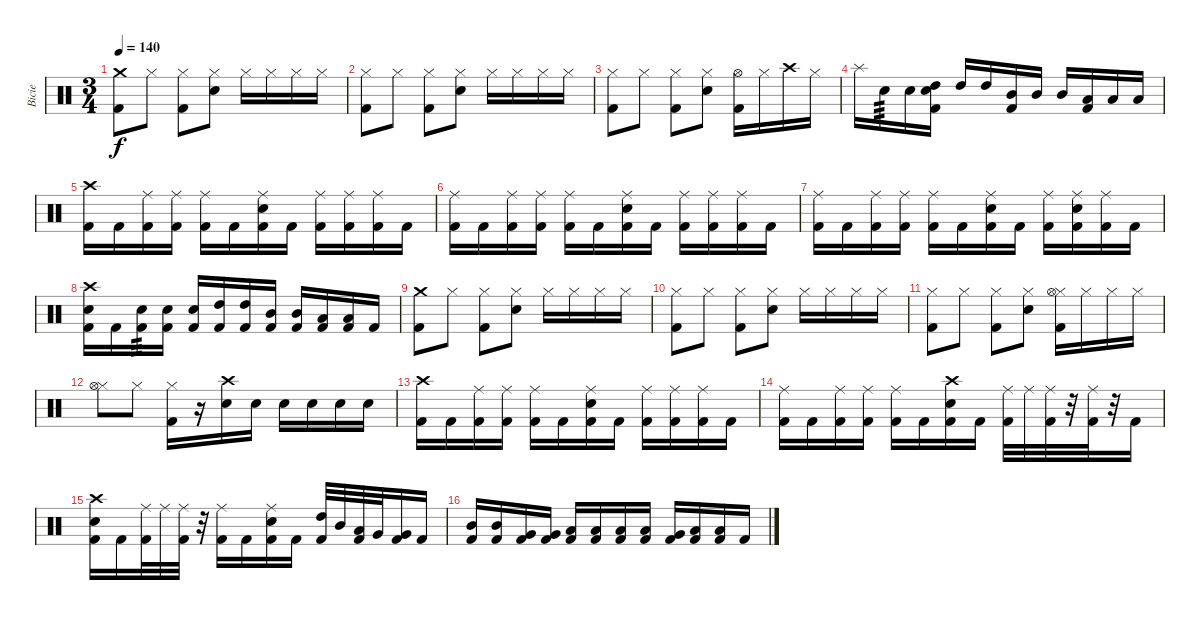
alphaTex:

\track ("Bicie" "Bicie") {instrument percussion}
\staff {score}
\articulation defaults
\ts (3 4)
\tempo 140
\clef neutral
\ks c
("Crash medium (hit)" "Kick (hit) 2").8{dy f volume 15} "Hi-Hat (closed)".8 ("Hi-Hat (closed)" "Kick (hit) 2").8 ("Hi-Hat (closed)" "Snare (hit) 2").8 "Hi-Hat (closed)".16 "Hi-Hat (closed)".16 "Hi-Hat (closed)".16 "Hi-Hat (closed)".16 |
("Hi-Hat (closed)" "Kick (hit) 2").8 "Hi-Hat (closed)".8 ("Hi-Hat (closed)" "Kick (hit) 2").8 ("Hi-Hat (closed)" "Snare (hit) 2").8 "Hi-Hat (closed)".16 "Hi-Hat (closed)".16 "Hi-Hat (closed)".16 "Hi-Hat (closed)".16 |
("Hi-Hat (closed)" "Kick (hit) 2").8 "Hi-Hat (closed)".8 ("Hi-Hat (closed)" "Kick (hit) 2").8 ("Hi-Hat (closed)" "Snare (hit) 2").8 ("Hi-Hat (open)" "Kick (hit) 2").16 "Hi-Hat (closed)".16 "Crash high (hit)".16 "Hi-Hat (closed)".16 |
"Splash (hit)".16 "Snare (hit) 2".16{tp 3} "Snare (hit) 2".16 ("Snare (hit) 2" "High Tom (hit)" "Kick (hit) 2").16 "High Tom (hit)".16 "High Tom (hit)".16 ("Mid Tom (hit)" "Kick (hit) 2").16 "Mid Tom (hit)".16 "Mid Tom (hit)".16 ("Low Tom (hit)" "Kick (hit) 2").16 "Low Tom (hit)".16 "Low Tom (hit)".16 |
("Crash high (hit)" "Kick (hit) 2").16 "Kick (hit) 2".16 ("Ride (middle)" "Kick (hit) 2").16 ("Ride (middle)" "Kick (hit) 2").16 ("Ride (middle)" "Kick (hit) 2").16 "Kick (hit) 2".16 ("Ride (middle)" "Snare (hit) 2" "Kick (hit) 2").16 "Kick (hit) 2".16 ("Ride (middle)" "Kick (hit) 2").16 ("Ride (middle)" "Kick (hit) 2").16 ("Ride (middle)" "Kick (hit) 2").16 "Kick (hit) 2".16 |
("Ride (middle)" "Kick (hit) 2").16 "Kick (hit) 2".16 ("Ride (middle)" "Kick (hit) 2").16 ("Ride (middle)" "Kick (hit) 2").16 ("Ride (middle)" "Kick (hit) 2").16 "Kick (hit) 2".16 ("Ride (middle)" "Snare (hit) 2" "Kick (hit) 2").16 "Kick (hit) 2".16 ("Ride (middle)" "Kick (hit) 2").16 ("Ride (middle)" "Kick (hit) 2").16 ("Ride (middle)" "Kick (hit) 2").16 "Kick (hit) 2".16 |
("Ride (middle)" "Kick (hit) 2").16 "Kick (hit) 2".16 ("Ride (middle)" "Kick (hit) 2").16 ("Ride (middle)" "Kick (hit) 2").16 ("Ride (middle)" "Kick (hit) 2").16 "Kick (hit) 2".16 ("Ride (middle)" "Snare (hit) 2" "Kick (hit) 2").16 "Kick (hit) 2".16 ("Ride (middle)" "Kick (hit) 2").16 ("Ride (middle)" "Snare (hit) 2" "Kick (hit) 2").16 ("Ride (middle)" "Kick (hit) 2").16 "Kick (hit) 2".16 |
("Crash high (hit)" "Snare (hit) 2" "Kick (hit) 2").16 "Kick (hit) 2".16 ("Snare (hit) 2" "Kick (hit) 2").16{tp 3} ("Snare (hit) 2" "Kick (hit) 2").16 ("Snare (hit) 2" "Kick (hit) 2").16 ("High Tom (hit)" "Kick (hit) 2").16 ("High Tom (hit)" "Kick (hit) 2").16 ("Mid Tom (hit)" "Kick (hit) 2").16 ("Mid Tom (hit)" "Kick (hit) 2").16 ("Low Tom (hit)" "Kick (hit) 2").16 ("Low Tom (hit)" "Kick (hit) 2").16 "Kick (hit) 2".16 |
("Crash medium (hit)" "Kick (hit) 2").8{volume 15} "Hi-Hat (closed)".8 ("Hi-Hat (closed)" "Kick (hit) 2").8 ("Hi-Hat (closed)" "Snare (hit) 2").8 "Hi-Hat (closed)".16 "Hi-Hat (closed)".16 "Hi-Hat (closed)".16 "Hi-Hat (closed)".16 |
("Hi-Hat (closed)" "Kick (hit) 2").8 "Hi-Hat (closed)".8 ("Hi-Hat (closed)" "Kick (hit) 2").8 ("Hi-Hat (closed)" "Snare (hit) 2").8 "Hi-Hat (closed)".16 "Hi-Hat (closed)".16 "Hi-Hat (closed)".16 "Hi-Hat (closed)".16 |
("Hi-Hat (closed)" "Kick (hit) 2").8 "Hi-Hat (closed)".8 ("Hi-Hat (closed)" "Kick (hit) 2").8 ("Hi-Hat (closed)" "Snare (hit) 2").8 ("Hi-Hat (closed)" "Hi-Hat (open)" "Kick (hit) 2").16 "Hi-Hat (closed)".16 "Hi-Hat (closed)".16 "Hi-Hat (closed)".16 |
("Hi-Hat (closed)" "Hi-Hat (open)").8 "Hi-Hat (closed)".8 ("Hi-Hat (closed)" "Kick (hit) 2").16 r.16 ("Crash high (hit)" "Snare (hit) 2").16 "Snare (hit) 2".16 "Snare (hit) 2".16 "Snare (hit) 2".16 "Snare (hit) 2".16 "Snare (hit) 2".16 |
("Crash high (hit)" "Kick (hit) 2").16 "Kick (hit) 2".16 ("Ride (middle)" "Kick (hit) 2").16 ("Ride (middle)" "Kick (hit) 2").16 ("Ride (middle)" "Kick (hit) 2").16 "Kick (hit) 2".16 ("Ride (middle)" "Snare (hit) 2" "Kick (hit) 2").16 "Kick (hit) 2".16 ("Ride (middle)" "Kick (hit) 2").16 ("Ride (middle)" "Kick (hit) 2").16 ("Ride (middle)" "Kick (hit) 2").16 "Kick (hit) 2".16 |
("Ride (middle)" "Kick (hit) 2").16 "Kick (hit) 2".16 ("Ride (middle)" "Kick (hit) 2").16 ("Ride (middle)" "Kick (hit) 2").16 ("Ride (middle)" "Kick (hit) 2").16 "Kick (hit) 2".16 ("Crash high (hit)" "Snare (hit) 2" "Kick (hit) 2").16 "Kick (hit) 2".16 ("Ride (middle)" "Kick (hit) 2").32 "Ride (middle)".32 ("Ride (middle)" "Kick (hit) 2").32 r.32 ("Ride (middle)" "Kick (hit) 2").32 r.32 "Kick (hit) 2".16 |
("Crash high (hit)" "Snare (hit) 2" "Kick (hit) 2").16 "Kick (hit) 2".16 ("Ride (middle)" "Kick (hit) 2").32 "Ride (middle)".32 ("Ride (middle)" "Kick (hit) 2").32 r.32 ("Ride (middle)" "Kick (hit) 2").16 "Kick (hit) 2".16 ("Ride (middle)" "Snare (hit) 2" "Kick (hit) 2").16 "Kick (hit) 2".16 ("High Tom (hit)" "Kick (hit) 2").32 "Mid Tom (hit)".32 ("Low Tom (hit)" "Kick (hit) 2").32 "Very Low Tom (hit)".32 ("Very Low Tom (hit)" "Kick (hit) 2").16 "Kick (hit) 2".16 |
("Mid Tom (hit)" "Kick (hit) 2").16 ("Mid Tom (hit)" "Kick (hit) 2").16 ("Very Low Tom (hit)" "Kick (hit) 2").16 ("Very Low Tom (hit)" "Kick (hit) 2").16 ("Low Floor Tom (hit)" "Kick (hit) 2").16 ("Low Floor Tom (hit)" "Kick (hit) 2").16 ("Low Tom (hit)" "Kick (hit) 2").16 ("Low Tom (hit)" "Kick (hit) 2").16 ("Very Low Tom (hit)" "Kick (hit) 2").16 ("Low Floor Tom (hit)" "Kick (hit) 2").16 ("Low Floor Tom (hit)" "Kick (hit) 2").16 "Kick (hit) 2".16
